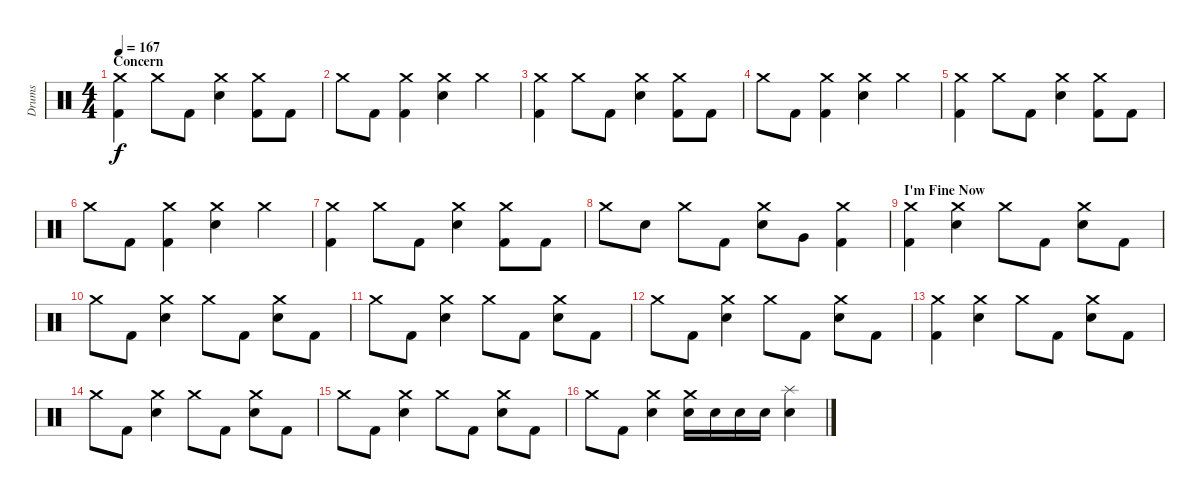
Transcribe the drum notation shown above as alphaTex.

\track ("Drums" "Drums") {instrument percussion}
\staff {score}
\articulation defaults
\ts (4 4)
\section ("" "Concern")
\tempo 167
\clef neutral
\ks c
("Crash medium (hit)" "Kick (hit) 2").4{dy f} "Crash medium (hit)".8 "Kick (hit) 2".8 ("Crash medium (hit)" "Electric Snare (hit)").4 ("Crash medium (hit)" "Kick (hit) 2").8 "Kick (hit) 2".8 |
"Crash medium (hit)".8 "Kick (hit) 2".8 ("Crash medium (hit)" "Kick (hit) 2").4 ("Crash medium (hit)" "Electric Snare (hit)").4 "Crash medium (hit)".4 |
("Crash medium (hit)" "Kick (hit) 2").4 "Crash medium (hit)".8 "Kick (hit) 2".8 ("Crash medium (hit)" "Electric Snare (hit)").4 ("Crash medium (hit)" "Kick (hit) 2").8 "Kick (hit) 2".8 |
"Crash medium (hit)".8 "Kick (hit) 2".8 ("Crash medium (hit)" "Kick (hit) 2").4 ("Crash medium (hit)" "Electric Snare (hit)").4 "Crash medium (hit)".4 |
("Crash medium (hit)" "Kick (hit) 2").4 "Crash medium (hit)".8 "Kick (hit) 2".8 ("Crash medium (hit)" "Electric Snare (hit)").4 ("Crash medium (hit)" "Kick (hit) 2").8 "Kick (hit) 2".8 |
"Crash medium (hit)".8 "Kick (hit) 2".8 ("Crash medium (hit)" "Kick (hit) 2").4 ("Crash medium (hit)" "Electric Snare (hit)").4 "Crash medium (hit)".4 |
("Crash medium (hit)" "Kick (hit) 2").4 "Crash medium (hit)".8 "Kick (hit) 2".8 ("Crash medium (hit)" "Electric Snare (hit)").4 ("Crash medium (hit)" "Kick (hit) 2").8 "Kick (hit) 2".8 |
"Crash medium (hit)".8 "Electric Snare (hit)".8 "Crash medium (hit)".8 "Kick (hit) 2".8 ("Crash medium (hit)" "Electric Snare (hit)").8 "Very Low Tom (hit)".8 ("Crash medium (hit)" "Kick (hit) 2").4 |
\section ("" "I'm Fine Now")
("Crash medium (hit)" "Kick (hit) 2").4 ("Crash medium (hit)" "Electric Snare (hit)").4 "Crash medium (hit)".8 "Kick (hit) 2".8 ("Crash medium (hit)" "Electric Snare (hit)").8 "Kick (hit) 2".8 |
"Crash medium (hit)".8 "Kick (hit) 2".8 ("Crash medium (hit)" "Electric Snare (hit)").4 "Crash medium (hit)".8 "Kick (hit) 2".8 ("Crash medium (hit)" "Electric Snare (hit)").8 "Kick (hit) 2".8 |
"Crash medium (hit)".8 "Kick (hit) 2".8 ("Crash medium (hit)" "Electric Snare (hit)").4 "Crash medium (hit)".8 "Kick (hit) 2".8 ("Crash medium (hit)" "Electric Snare (hit)").8 "Kick (hit) 2".8 |
"Crash medium (hit)".8 "Kick (hit) 2".8 ("Crash medium (hit)" "Electric Snare (hit)").4 "Crash medium (hit)".8 "Kick (hit) 2".8 ("Crash medium (hit)" "Electric Snare (hit)").8 "Kick (hit) 2".8 |
("Crash medium (hit)" "Kick (hit) 2").4 ("Crash medium (hit)" "Electric Snare (hit)").4 "Crash medium (hit)".8 "Kick (hit) 2".8 ("Crash medium (hit)" "Electric Snare (hit)").8 "Kick (hit) 2".8 |
"Crash medium (hit)".8 "Kick (hit) 2".8 ("Crash medium (hit)" "Electric Snare (hit)").4 "Crash medium (hit)".8 "Kick (hit) 2".8 ("Crash medium (hit)" "Electric Snare (hit)").8 "Kick (hit) 2".8 |
"Crash medium (hit)".8 "Kick (hit) 2".8 ("Crash medium (hit)" "Electric Snare (hit)").4 "Crash medium (hit)".8 "Kick (hit) 2".8 ("Crash medium (hit)" "Electric Snare (hit)").8 "Kick (hit) 2".8 |
"Crash medium (hit)".8 "Kick (hit) 2".8 ("Crash medium (hit)" "Electric Snare (hit)").4 ("Crash medium (hit)" "Electric Snare (hit)").16 "Electric Snare (hit)".16 "Electric Snare (hit)".16 "Electric Snare (hit)".16 ("Splash (hit)" "Electric Snare (hit)").4
